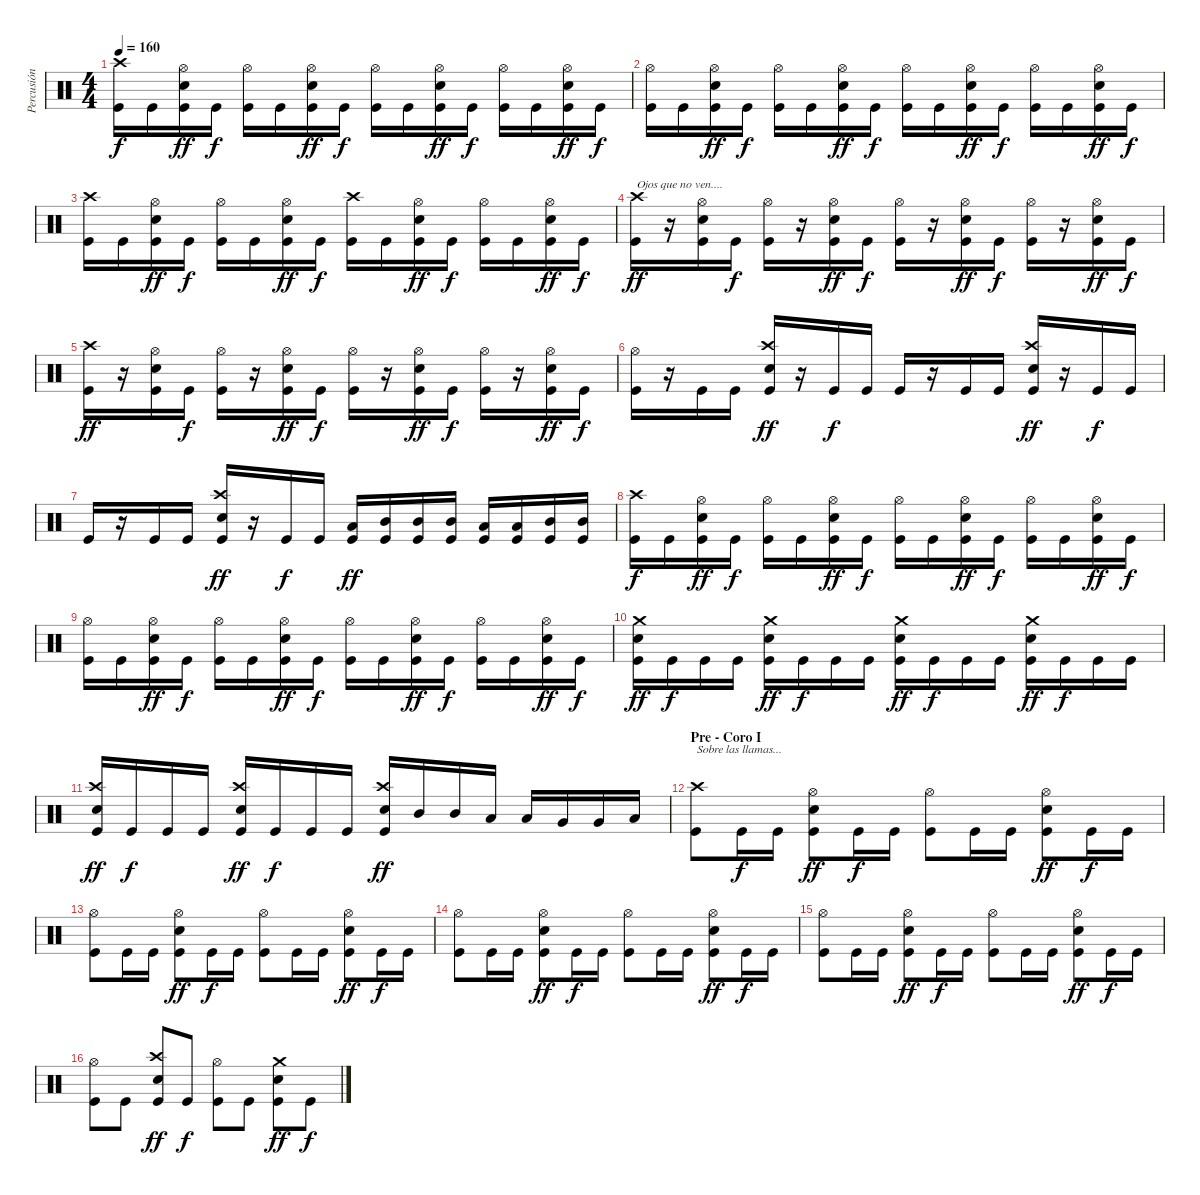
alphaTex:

\track ("Percusión" "Percusión") {instrument percussion}
\staff {score}
\articulation defaults
\ts (4 4)
\tempo 160
\clef neutral
\ks c
("Kick (hit)" "Crash high (hit)").16{dy f} "Kick (hit)".16 ("Kick (hit)" "Electric Snare (hit)" "Hi-Hat (open)").16{dy ff} "Kick (hit)".16{dy f} ("Kick (hit)" "Hi-Hat (open)").16 "Kick (hit)".16 ("Kick (hit)" "Electric Snare (hit)" "Hi-Hat (open)").16{dy ff} "Kick (hit)".16{dy f} ("Kick (hit)" "Hi-Hat (open)").16 "Kick (hit)".16 ("Kick (hit)" "Electric Snare (hit)" "Hi-Hat (open)").16{dy ff} "Kick (hit)".16{dy f} ("Kick (hit)" "Hi-Hat (open)").16 "Kick (hit)".16 ("Kick (hit)" "Electric Snare (hit)" "Hi-Hat (open)").16{dy ff} "Kick (hit)".16{dy f} |
("Kick (hit)" "Hi-Hat (open)").16 "Kick (hit)".16 ("Kick (hit)" "Electric Snare (hit)" "Hi-Hat (open)").16{dy ff} "Kick (hit)".16{dy f} ("Kick (hit)" "Hi-Hat (open)").16 "Kick (hit)".16 ("Kick (hit)" "Electric Snare (hit)" "Hi-Hat (open)").16{dy ff} "Kick (hit)".16{dy f} ("Kick (hit)" "Hi-Hat (open)").16 "Kick (hit)".16 ("Kick (hit)" "Electric Snare (hit)" "Hi-Hat (open)").16{dy ff} "Kick (hit)".16{dy f} ("Kick (hit)" "Hi-Hat (open)").16 "Kick (hit)".16 ("Kick (hit)" "Electric Snare (hit)" "Hi-Hat (open)").16{dy ff} "Kick (hit)".16{dy f} |
("Kick (hit)" "Crash high (hit)").16 "Kick (hit)".16 ("Kick (hit)" "Electric Snare (hit)" "Hi-Hat (open)").16{dy ff} "Kick (hit)".16{dy f} ("Kick (hit)" "Hi-Hat (open)").16 "Kick (hit)".16 ("Kick (hit)" "Electric Snare (hit)" "Hi-Hat (open)").16{dy ff} "Kick (hit)".16{dy f} ("Kick (hit)" "Crash high (hit)").16 "Kick (hit)".16 ("Kick (hit)" "Electric Snare (hit)" "Hi-Hat (open)").16{dy ff} "Kick (hit)".16{dy f} ("Kick (hit)" "Hi-Hat (open)").16 "Kick (hit)".16 ("Kick (hit)" "Electric Snare (hit)" "Hi-Hat (open)").16{dy ff} "Kick (hit)".16{dy f} |
("Kick (hit)" "Crash high (hit)").16{txt "Ojos que no ven...." dy ff} r.16 ("Kick (hit)" "Electric Snare (hit)" "Hi-Hat (open)").16 "Kick (hit)".16{dy f} ("Kick (hit)" "Hi-Hat (open)").16 r.16 ("Kick (hit)" "Electric Snare (hit)" "Hi-Hat (open)").16{dy ff} "Kick (hit)".16{dy f} ("Kick (hit)" "Hi-Hat (open)").16 r.16 ("Kick (hit)" "Electric Snare (hit)" "Hi-Hat (open)").16{dy ff} "Kick (hit)".16{dy f} ("Kick (hit)" "Hi-Hat (open)").16 r.16 ("Kick (hit)" "Electric Snare (hit)" "Hi-Hat (open)").16{dy ff} "Kick (hit)".16{dy f} |
("Kick (hit)" "Crash high (hit)").16{dy ff} r.16 ("Kick (hit)" "Electric Snare (hit)" "Hi-Hat (open)").16 "Kick (hit)".16{dy f} ("Kick (hit)" "Hi-Hat (open)").16 r.16 ("Kick (hit)" "Electric Snare (hit)" "Hi-Hat (open)").16{dy ff} "Kick (hit)".16{dy f} ("Kick (hit)" "Hi-Hat (open)").16 r.16 ("Kick (hit)" "Electric Snare (hit)" "Hi-Hat (open)").16{dy ff} "Kick (hit)".16{dy f} ("Kick (hit)" "Hi-Hat (open)").16 r.16 ("Kick (hit)" "Electric Snare (hit)" "Hi-Hat (open)").16{dy ff} "Kick (hit)".16{dy f} |
("Kick (hit)" "Hi-Hat (open)").16 r.16 "Kick (hit)".16 "Kick (hit)".16 ("Kick (hit)" "Electric Snare (hit)" "Crash high (hit)").16{dy ff} r.16 "Kick (hit)".16{dy f} "Kick (hit)".16 "Kick (hit)".16 r.16 "Kick (hit)".16 "Kick (hit)".16 ("Kick (hit)" "Electric Snare (hit)" "Crash high (hit)").16{dy ff} r.16 "Kick (hit)".16{dy f} "Kick (hit)".16 |
"Kick (hit)".16 r.16 "Kick (hit)".16 "Kick (hit)".16 ("Kick (hit)" "Electric Snare (hit)" "Crash high (hit)").16{dy ff} r.16 "Kick (hit)".16{dy f} "Kick (hit)".16 ("Kick (hit)" "Low Tom (hit)").16{dy ff} ("Kick (hit)" "Mid Tom (hit)").16 ("Kick (hit)" "Mid Tom (hit)").16 ("Kick (hit)" "Mid Tom (hit)").16 ("Kick (hit)" "Low Tom (hit)").16 ("Kick (hit)" "Low Tom (hit)").16 ("Kick (hit)" "Mid Tom (hit)").16 ("Kick (hit)" "Mid Tom (hit)").16 |
("Kick (hit)" "Crash high (hit)").16{dy f} "Kick (hit)".16 ("Kick (hit)" "Electric Snare (hit)" "Hi-Hat (open)").16{dy ff} "Kick (hit)".16{dy f} ("Kick (hit)" "Hi-Hat (open)").16 "Kick (hit)".16 ("Kick (hit)" "Electric Snare (hit)" "Hi-Hat (open)").16{dy ff} "Kick (hit)".16{dy f} ("Kick (hit)" "Hi-Hat (open)").16 "Kick (hit)".16 ("Kick (hit)" "Electric Snare (hit)" "Hi-Hat (open)").16{dy ff} "Kick (hit)".16{dy f} ("Kick (hit)" "Hi-Hat (open)").16 "Kick (hit)".16 ("Kick (hit)" "Electric Snare (hit)" "Hi-Hat (open)").16{dy ff} "Kick (hit)".16{dy f} |
("Kick (hit)" "Hi-Hat (open)").16 "Kick (hit)".16 ("Kick (hit)" "Electric Snare (hit)" "Hi-Hat (open)").16{dy ff} "Kick (hit)".16{dy f} ("Kick (hit)" "Hi-Hat (open)").16 "Kick (hit)".16 ("Kick (hit)" "Electric Snare (hit)" "Hi-Hat (open)").16{dy ff} "Kick (hit)".16{dy f} ("Kick (hit)" "Hi-Hat (open)").16 "Kick (hit)".16 ("Kick (hit)" "Electric Snare (hit)" "Hi-Hat (open)").16{dy ff} "Kick (hit)".16{dy f} ("Kick (hit)" "Hi-Hat (open)").16 "Kick (hit)".16 ("Kick (hit)" "Electric Snare (hit)" "Hi-Hat (open)").16{dy ff} "Kick (hit)".16{dy f} |
("Kick (hit)" "Electric Snare (hit)" "Crash medium (hit)").16{dy ff} "Kick (hit)".16{dy f} "Kick (hit)".16 "Kick (hit)".16 ("Kick (hit)" "Electric Snare (hit)" "Crash medium (hit)").16{dy ff} "Kick (hit)".16{dy f} "Kick (hit)".16 "Kick (hit)".16 ("Kick (hit)" "Electric Snare (hit)" "Crash medium (hit)").16{dy ff} "Kick (hit)".16{dy f} "Kick (hit)".16 "Kick (hit)".16 ("Kick (hit)" "Electric Snare (hit)" "Crash medium (hit)").16{dy ff} "Kick (hit)".16{dy f} "Kick (hit)".16 "Kick (hit)".16 |
("Kick (hit)" "Electric Snare (hit)" "Crash high (hit)").16{dy ff} "Kick (hit)".16{dy f} "Kick (hit)".16 "Kick (hit)".16 ("Kick (hit)" "Electric Snare (hit)" "Crash high (hit)").16{dy ff} "Kick (hit)".16{dy f} "Kick (hit)".16 "Kick (hit)".16 ("Kick (hit)" "Electric Snare (hit)" "Crash high (hit)").16{dy ff} "Mid Tom (hit)".16 "Mid Tom (hit)".16 "Low Tom (hit)".16 "Low Tom (hit)".16 "Very Low Tom (hit)".16 "Very Low Tom (hit)".16 "Low Floor Tom (hit)".16 |
\section ("" "Pre - Coro I")
("Kick (hit)" "Crash high (hit)").8{txt "Sobre las llamas..."} "Kick (hit)".16{dy f} "Kick (hit)".16 ("Kick (hit)" "Electric Snare (hit)" "Hi-Hat (open)").8{dy ff} "Kick (hit)".16{dy f} "Kick (hit)".16 ("Kick (hit)" "Hi-Hat (open)").8 "Kick (hit)".16 "Kick (hit)".16 ("Kick (hit)" "Electric Snare (hit)" "Hi-Hat (open)").8{dy ff} "Kick (hit)".16{dy f} "Kick (hit)".16 |
("Kick (hit)" "Hi-Hat (open)").8 "Kick (hit)".16 "Kick (hit)".16 ("Kick (hit)" "Electric Snare (hit)" "Hi-Hat (open)").8{dy ff} "Kick (hit)".16{dy f} "Kick (hit)".16 ("Kick (hit)" "Hi-Hat (open)").8 "Kick (hit)".16 "Kick (hit)".16 ("Kick (hit)" "Electric Snare (hit)" "Hi-Hat (open)").8{dy ff} "Kick (hit)".16{dy f} "Kick (hit)".16 |
("Kick (hit)" "Hi-Hat (open)").8 "Kick (hit)".16 "Kick (hit)".16 ("Kick (hit)" "Electric Snare (hit)" "Hi-Hat (open)").8{dy ff} "Kick (hit)".16{dy f} "Kick (hit)".16 ("Kick (hit)" "Hi-Hat (open)").8 "Kick (hit)".16 "Kick (hit)".16 ("Kick (hit)" "Electric Snare (hit)" "Hi-Hat (open)").8{dy ff} "Kick (hit)".16{dy f} "Kick (hit)".16 |
("Kick (hit)" "Hi-Hat (open)").8 "Kick (hit)".16 "Kick (hit)".16 ("Kick (hit)" "Electric Snare (hit)" "Hi-Hat (open)").8{dy ff} "Kick (hit)".16{dy f} "Kick (hit)".16 ("Kick (hit)" "Hi-Hat (open)").8 "Kick (hit)".16 "Kick (hit)".16 ("Kick (hit)" "Electric Snare (hit)" "Hi-Hat (open)").8{dy ff} "Kick (hit)".16{dy f} "Kick (hit)".16 |
("Kick (hit)" "Hi-Hat (open)").8 "Kick (hit)".8 ("Kick (hit)" "Electric Snare (hit)" "Crash high (hit)").8{dy ff} "Kick (hit)".8{dy f} ("Kick (hit)" "Hi-Hat (open)").8 "Kick (hit)".8 ("Kick (hit)" "Electric Snare (hit)" "Crash medium (hit)").8{dy ff} "Kick (hit)".8{dy f}
